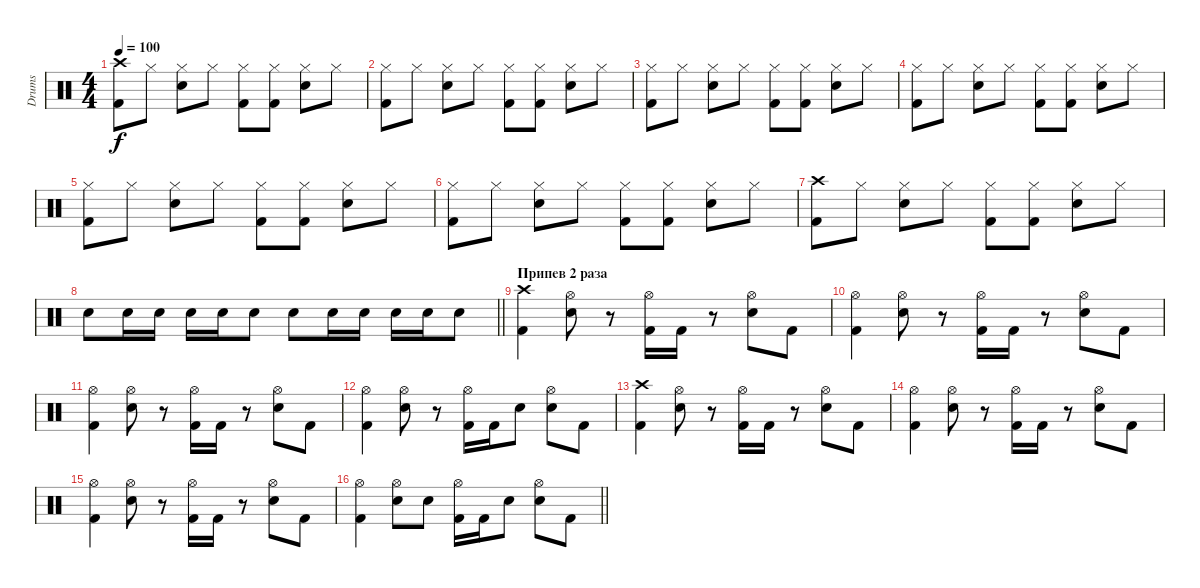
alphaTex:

\track ("Drums" "Drums") {instrument percussion}
\staff {score}
\articulation defaults
\ts (4 4)
\tempo 100
\clef neutral
\ks c
("Crash high (hit)" "Kick (hit) 2").8{dy f} "Hi-Hat (closed)".8 ("Hi-Hat (closed)" "Snare (hit) 2").8 "Hi-Hat (closed)".8 ("Hi-Hat (closed)" "Kick (hit) 2").8 ("Hi-Hat (closed)" "Kick (hit) 2").8 ("Hi-Hat (closed)" "Snare (hit) 2").8 "Hi-Hat (closed)".8 |
("Hi-Hat (closed)" "Kick (hit) 2").8 "Hi-Hat (closed)".8 ("Hi-Hat (closed)" "Snare (hit) 2").8 "Hi-Hat (closed)".8 ("Hi-Hat (closed)" "Kick (hit) 2").8 ("Hi-Hat (closed)" "Kick (hit) 2").8 ("Hi-Hat (closed)" "Snare (hit) 2").8 "Hi-Hat (closed)".8 |
("Hi-Hat (closed)" "Kick (hit) 2").8 "Hi-Hat (closed)".8 ("Hi-Hat (closed)" "Snare (hit) 2").8 "Hi-Hat (closed)".8 ("Hi-Hat (closed)" "Kick (hit) 2").8 ("Hi-Hat (closed)" "Kick (hit) 2").8 ("Hi-Hat (closed)" "Snare (hit) 2").8 "Hi-Hat (closed)".8 |
("Hi-Hat (closed)" "Kick (hit) 2").8 "Hi-Hat (closed)".8 ("Hi-Hat (closed)" "Snare (hit) 2").8 "Hi-Hat (closed)".8 ("Hi-Hat (closed)" "Kick (hit) 2").8 ("Hi-Hat (closed)" "Kick (hit) 2").8 ("Hi-Hat (closed)" "Snare (hit) 2").8 "Hi-Hat (closed)".8 |
("Hi-Hat (closed)" "Kick (hit) 2").8 "Hi-Hat (closed)".8 ("Hi-Hat (closed)" "Snare (hit) 2").8 "Hi-Hat (closed)".8 ("Hi-Hat (closed)" "Kick (hit) 2").8 ("Hi-Hat (closed)" "Kick (hit) 2").8 ("Hi-Hat (closed)" "Snare (hit) 2").8 "Hi-Hat (closed)".8 |
("Hi-Hat (closed)" "Kick (hit) 2").8 "Hi-Hat (closed)".8 ("Hi-Hat (closed)" "Snare (hit) 2").8 "Hi-Hat (closed)".8 ("Hi-Hat (closed)" "Kick (hit) 2").8 ("Hi-Hat (closed)" "Kick (hit) 2").8 ("Hi-Hat (closed)" "Snare (hit) 2").8 "Hi-Hat (closed)".8 |
("Crash high (hit)" "Kick (hit) 2").8 "Hi-Hat (closed)".8 ("Hi-Hat (closed)" "Snare (hit) 2").8 "Hi-Hat (closed)".8 ("Hi-Hat (closed)" "Kick (hit) 2").8 ("Hi-Hat (closed)" "Kick (hit) 2").8 ("Hi-Hat (closed)" "Snare (hit) 2").8 "Hi-Hat (closed)".8 |
\barLineRight lightlight "Snare (hit) 2".8 "Snare (hit) 2".16 "Snare (hit) 2".16 "Snare (hit) 2".16 "Snare (hit) 2".16 "Snare (hit) 2".8 "Snare (hit) 2".8 "Snare (hit) 2".16 "Snare (hit) 2".16 "Snare (hit) 2".16 "Snare (hit) 2".16 "Snare (hit) 2".8
|
\section ("" "Припев 2 раза")
("Crash high (hit)" "Kick (hit) 2").4 ("Hi-Hat (open)" "Snare (hit) 2").8 r.8 ("Hi-Hat (open)" "Kick (hit) 2").16 "Kick (hit) 2".16 r.8 ("Hi-Hat (open)" "Snare (hit) 2").8 "Kick (hit) 2".8 |
("Hi-Hat (open)" "Kick (hit) 2").4 ("Hi-Hat (open)" "Snare (hit) 2").8 r.8 ("Hi-Hat (open)" "Kick (hit) 2").16 "Kick (hit) 2".16 r.8 ("Hi-Hat (open)" "Snare (hit) 2").8 "Kick (hit) 2".8 |
("Hi-Hat (open)" "Kick (hit) 2").4 ("Hi-Hat (open)" "Snare (hit) 2").8 r.8 ("Hi-Hat (open)" "Kick (hit) 2").16 "Kick (hit) 2".16 r.8 ("Hi-Hat (open)" "Snare (hit) 2").8 "Kick (hit) 2".8 |
("Hi-Hat (open)" "Kick (hit) 2").4 ("Hi-Hat (open)" "Snare (hit) 2").8 r.8 ("Hi-Hat (open)" "Kick (hit) 2").16 "Kick (hit) 2".16 "Snare (hit) 2".8 ("Hi-Hat (open)" "Snare (hit) 2").8 "Kick (hit) 2".8 |
("Crash high (hit)" "Kick (hit) 2").4 ("Hi-Hat (open)" "Snare (hit) 2").8 r.8 ("Hi-Hat (open)" "Kick (hit) 2").16 "Kick (hit) 2".16 r.8 ("Hi-Hat (open)" "Snare (hit) 2").8 "Kick (hit) 2".8 |
("Hi-Hat (open)" "Kick (hit) 2").4 ("Hi-Hat (open)" "Snare (hit) 2").8 r.8 ("Hi-Hat (open)" "Kick (hit) 2").16 "Kick (hit) 2".16 r.8 ("Hi-Hat (open)" "Snare (hit) 2").8 "Kick (hit) 2".8 |
("Hi-Hat (open)" "Kick (hit) 2").4 ("Hi-Hat (open)" "Snare (hit) 2").8 r.8 ("Hi-Hat (open)" "Kick (hit) 2").16 "Kick (hit) 2".16 r.8 ("Hi-Hat (open)" "Snare (hit) 2").8 "Kick (hit) 2".8 |
\barLineRight lightlight
("Hi-Hat (open)" "Kick (hit) 2").4 ("Hi-Hat (open)" "Snare (hit) 2").8 "Snare (hit) 2".8 ("Hi-Hat (open)" "Kick (hit) 2").16 "Kick (hit) 2".16 "Snare (hit) 2".8 ("Hi-Hat (open)" "Snare (hit) 2").8 "Kick (hit) 2".8
